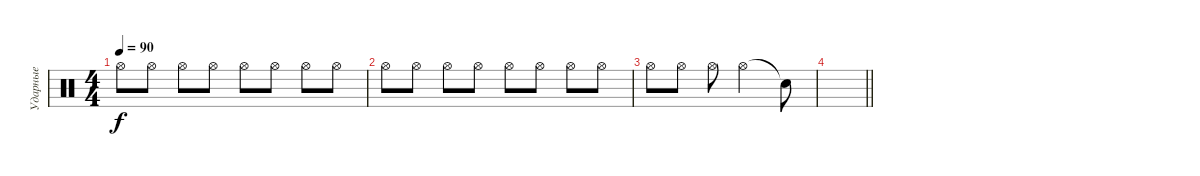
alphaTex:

\track ("Ударные" "Ударные") {instrument percussion}
\staff {score}
\articulation defaults
\ts (4 4)
\tempo 90
\clef neutral
\ks c "Hi-Hat (open)".8{dy f} "Hi-Hat (open)".8 "Hi-Hat (open)".8 "Hi-Hat (open)".8 "Hi-Hat (open)".8 "Hi-Hat (open)".8 "Hi-Hat (open)".8 "Hi-Hat (open)".8
|
"Hi-Hat (open)".8 "Hi-Hat (open)".8 "Hi-Hat (open)".8 "Hi-Hat (open)".8 "Hi-Hat (open)".8 "Hi-Hat (open)".8 "Hi-Hat (open)".8 "Hi-Hat (open)".8 |
"Hi-Hat (open)".8 "Hi-Hat (open)".8 "Hi-Hat (open)".8 "Hi-Hat (open)".2 "Snare (hit)"{t}.8 |
\barLineRight lightlight
